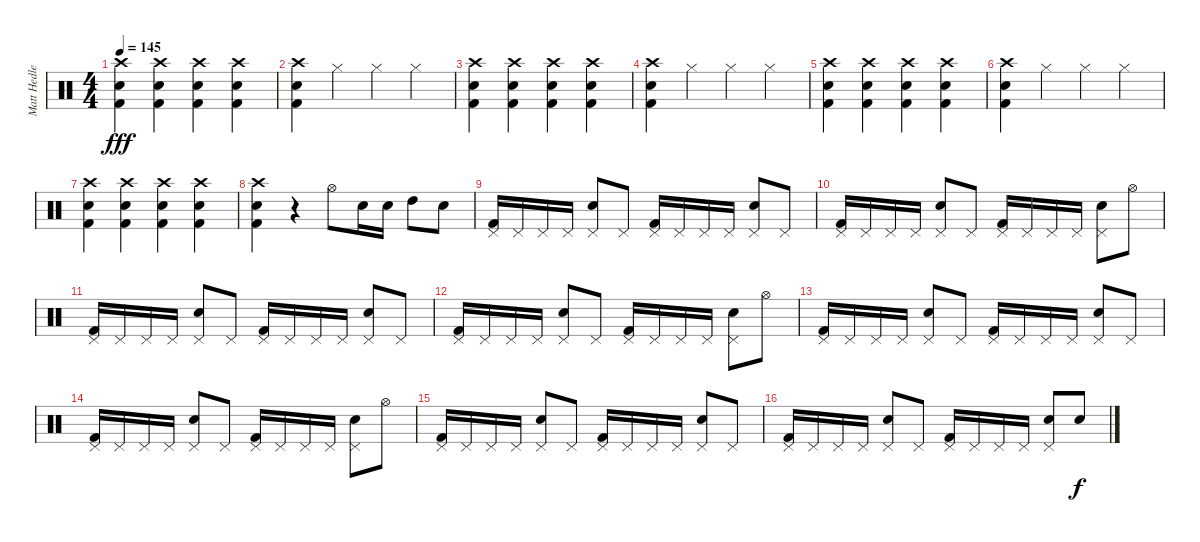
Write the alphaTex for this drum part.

\track ("Matt Hedlers" "Matt Hedle") {instrument percussion}
\staff {score}
\articulation defaults
\ts (4 4)
\tempo 145
\clef neutral
\ks c
("Crash high (hit)" "Snare (hit) 2" "Kick (hit) 2").4{dy fff} ("Crash high (hit)" "Snare (hit) 2" "Kick (hit) 2").4 ("Crash high (hit)" "Snare (hit) 2" "Kick (hit) 2").4 ("Crash high (hit)" "Snare (hit) 2" "Kick (hit) 2").4 |
("Crash high (hit)" "Snare (hit) 2" "Kick (hit) 2").4 "Hi-Hat (closed)".4 "Hi-Hat (closed)".4 "Hi-Hat (closed)".4 |
("Crash high (hit)" "Snare (hit) 2" "Kick (hit) 2").4 ("Crash high (hit)" "Snare (hit) 2" "Kick (hit) 2").4 ("Crash high (hit)" "Snare (hit) 2" "Kick (hit) 2").4 ("Crash high (hit)" "Snare (hit) 2" "Kick (hit) 2").4 |
("Crash high (hit)" "Snare (hit) 2" "Kick (hit) 2").4 "Hi-Hat (closed)".4 "Hi-Hat (closed)".4 "Hi-Hat (closed)".4 |
("Crash high (hit)" "Snare (hit) 2" "Kick (hit) 2").4 ("Crash high (hit)" "Snare (hit) 2" "Kick (hit) 2").4 ("Crash high (hit)" "Snare (hit) 2" "Kick (hit) 2").4 ("Crash high (hit)" "Snare (hit) 2" "Kick (hit) 2").4 |
("Crash high (hit)" "Snare (hit) 2" "Kick (hit) 2").4 "Hi-Hat (closed)".4 "Hi-Hat (closed)".4 "Hi-Hat (closed)".4 |
("Crash high (hit)" "Snare (hit) 2" "Kick (hit) 2").4 ("Crash high (hit)" "Snare (hit) 2" "Kick (hit) 2").4 ("Crash high (hit)" "Snare (hit) 2" "Kick (hit) 2").4 ("Crash high (hit)" "Snare (hit) 2" "Kick (hit) 2").4 |
("Crash high (hit)" "Snare (hit) 2" "Kick (hit) 2").4 r.4 "Hi-Hat (open)".8 "Snare (hit) 2".16 "Snare (hit) 2".16 "High Tom (hit)".8 "Snare (hit) 2".8 |
("Pedal Hi-Hat (hit)" "Kick (hit) 2").16 "Pedal Hi-Hat (hit)".16 "Pedal Hi-Hat (hit)".16 "Pedal Hi-Hat (hit)".16 ("Pedal Hi-Hat (hit)" "Snare (hit) 2").8 "Pedal Hi-Hat (hit)".8 ("Pedal Hi-Hat (hit)" "Kick (hit) 2").16 "Pedal Hi-Hat (hit)".16 "Pedal Hi-Hat (hit)".16 "Pedal Hi-Hat (hit)".16 ("Pedal Hi-Hat (hit)" "Snare (hit) 2").8 "Pedal Hi-Hat (hit)".8 |
("Pedal Hi-Hat (hit)" "Kick (hit) 2").16 "Pedal Hi-Hat (hit)".16 "Pedal Hi-Hat (hit)".16 "Pedal Hi-Hat (hit)".16 ("Pedal Hi-Hat (hit)" "Snare (hit) 2").8 "Pedal Hi-Hat (hit)".8 ("Pedal Hi-Hat (hit)" "Kick (hit) 2").16 "Pedal Hi-Hat (hit)".16 "Pedal Hi-Hat (hit)".16 "Pedal Hi-Hat (hit)".16 ("Pedal Hi-Hat (hit)" "Snare (hit) 2").8 "Hi-Hat (open)".8 |
("Pedal Hi-Hat (hit)" "Kick (hit) 2").16 "Pedal Hi-Hat (hit)".16 "Pedal Hi-Hat (hit)".16 "Pedal Hi-Hat (hit)".16 ("Pedal Hi-Hat (hit)" "Snare (hit) 2").8 "Pedal Hi-Hat (hit)".8 ("Pedal Hi-Hat (hit)" "Kick (hit) 2").16 "Pedal Hi-Hat (hit)".16 "Pedal Hi-Hat (hit)".16 "Pedal Hi-Hat (hit)".16 ("Pedal Hi-Hat (hit)" "Snare (hit) 2").8 "Pedal Hi-Hat (hit)".8 |
("Pedal Hi-Hat (hit)" "Kick (hit) 2").16 "Pedal Hi-Hat (hit)".16 "Pedal Hi-Hat (hit)".16 "Pedal Hi-Hat (hit)".16 ("Pedal Hi-Hat (hit)" "Snare (hit) 2").8 "Pedal Hi-Hat (hit)".8 ("Pedal Hi-Hat (hit)" "Kick (hit) 2").16 "Pedal Hi-Hat (hit)".16 "Pedal Hi-Hat (hit)".16 "Pedal Hi-Hat (hit)".16 ("Pedal Hi-Hat (hit)" "Snare (hit) 2").8 "Hi-Hat (open)".8 |
("Pedal Hi-Hat (hit)" "Kick (hit) 2").16 "Pedal Hi-Hat (hit)".16 "Pedal Hi-Hat (hit)".16 "Pedal Hi-Hat (hit)".16 ("Pedal Hi-Hat (hit)" "Snare (hit) 2").8 "Pedal Hi-Hat (hit)".8 ("Pedal Hi-Hat (hit)" "Kick (hit) 2").16 "Pedal Hi-Hat (hit)".16 "Pedal Hi-Hat (hit)".16 "Pedal Hi-Hat (hit)".16 ("Pedal Hi-Hat (hit)" "Snare (hit) 2").8 "Pedal Hi-Hat (hit)".8 |
("Pedal Hi-Hat (hit)" "Kick (hit) 2").16 "Pedal Hi-Hat (hit)".16 "Pedal Hi-Hat (hit)".16 "Pedal Hi-Hat (hit)".16 ("Pedal Hi-Hat (hit)" "Snare (hit) 2").8 "Pedal Hi-Hat (hit)".8 ("Pedal Hi-Hat (hit)" "Kick (hit) 2").16 "Pedal Hi-Hat (hit)".16 "Pedal Hi-Hat (hit)".16 "Pedal Hi-Hat (hit)".16 ("Pedal Hi-Hat (hit)" "Snare (hit) 2").8 "Hi-Hat (open)".8 |
("Pedal Hi-Hat (hit)" "Kick (hit) 2").16 "Pedal Hi-Hat (hit)".16 "Pedal Hi-Hat (hit)".16 "Pedal Hi-Hat (hit)".16 ("Pedal Hi-Hat (hit)" "Snare (hit) 2").8 "Pedal Hi-Hat (hit)".8 ("Pedal Hi-Hat (hit)" "Kick (hit) 2").16 "Pedal Hi-Hat (hit)".16 "Pedal Hi-Hat (hit)".16 "Pedal Hi-Hat (hit)".16 ("Pedal Hi-Hat (hit)" "Snare (hit) 2").8 "Pedal Hi-Hat (hit)".8 |
("Pedal Hi-Hat (hit)" "Kick (hit) 2").16 "Pedal Hi-Hat (hit)".16 "Pedal Hi-Hat (hit)".16 "Pedal Hi-Hat (hit)".16 ("Pedal Hi-Hat (hit)" "Snare (hit) 2").8 "Pedal Hi-Hat (hit)".8 ("Pedal Hi-Hat (hit)" "Kick (hit) 2").16 "Pedal Hi-Hat (hit)".16 "Pedal Hi-Hat (hit)".16 "Pedal Hi-Hat (hit)".16 ("Pedal Hi-Hat (hit)" "Snare (hit) 2").8 "Snare (hit) 2".8{dy f}
